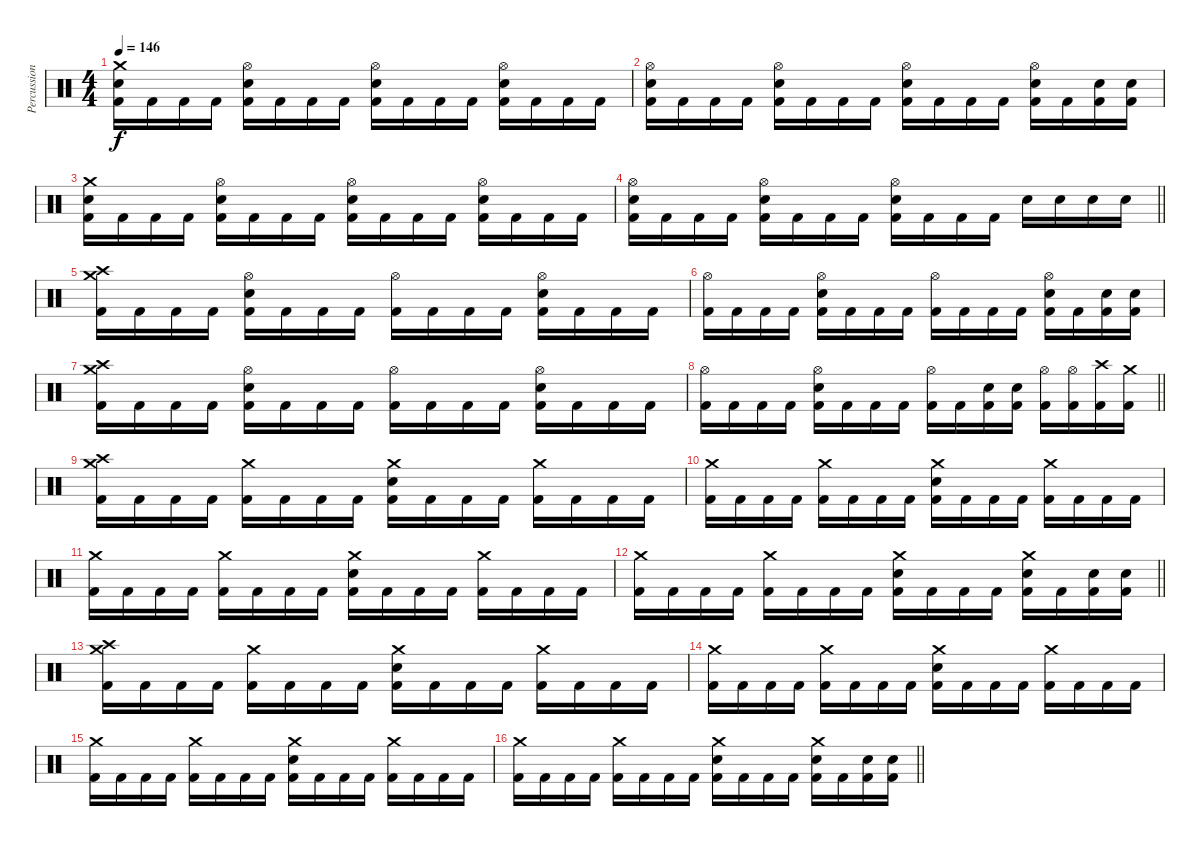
\track ("Percussion" "Percussion") {instrument percussion}
\staff {score}
\articulation defaults
\ts (4 4)
\tempo 146
\clef neutral
\ks c
("Crash medium (hit)" "Snare (hit) 2" "Kick (hit) 2").16{dy f} "Kick (hit) 2".16 "Kick (hit) 2".16 "Kick (hit) 2".16 ("Hi-Hat (open)" "Snare (hit) 2" "Kick (hit) 2").16 "Kick (hit) 2".16 "Kick (hit) 2".16 "Kick (hit) 2".16 ("Hi-Hat (open)" "Snare (hit) 2" "Kick (hit) 2").16 "Kick (hit) 2".16 "Kick (hit) 2".16 "Kick (hit) 2".16 ("Hi-Hat (open)" "Snare (hit) 2" "Kick (hit) 2").16 "Kick (hit) 2".16 "Kick (hit) 2".16 "Kick (hit) 2".16 |
("Hi-Hat (open)" "Snare (hit) 2" "Kick (hit) 2").16 "Kick (hit) 2".16 "Kick (hit) 2".16 "Kick (hit) 2".16 ("Hi-Hat (open)" "Snare (hit) 2" "Kick (hit) 2").16 "Kick (hit) 2".16 "Kick (hit) 2".16 "Kick (hit) 2".16 ("Hi-Hat (open)" "Snare (hit) 2" "Kick (hit) 2").16 "Kick (hit) 2".16 "Kick (hit) 2".16 "Kick (hit) 2".16 ("Hi-Hat (open)" "Snare (hit) 2" "Kick (hit) 2").16 "Kick (hit) 2".16 ("Snare (hit) 2" "Kick (hit) 2").16 ("Snare (hit) 2" "Kick (hit) 2").16 |
("Crash medium (hit)" "Snare (hit) 2" "Kick (hit) 2").16 "Kick (hit) 2".16 "Kick (hit) 2".16 "Kick (hit) 2".16 ("Hi-Hat (open)" "Snare (hit) 2" "Kick (hit) 2").16 "Kick (hit) 2".16 "Kick (hit) 2".16 "Kick (hit) 2".16 ("Hi-Hat (open)" "Snare (hit) 2" "Kick (hit) 2").16 "Kick (hit) 2".16 "Kick (hit) 2".16 "Kick (hit) 2".16 ("Hi-Hat (open)" "Snare (hit) 2" "Kick (hit) 2").16 "Kick (hit) 2".16 "Kick (hit) 2".16 "Kick (hit) 2".16 |
\barLineRight lightlight
("Hi-Hat (open)" "Snare (hit) 2" "Kick (hit) 2").16 "Kick (hit) 2".16 "Kick (hit) 2".16 "Kick (hit) 2".16 ("Hi-Hat (open)" "Snare (hit) 2" "Kick (hit) 2").16 "Kick (hit) 2".16 "Kick (hit) 2".16 "Kick (hit) 2".16 ("Hi-Hat (open)" "Snare (hit) 2" "Kick (hit) 2").16 "Kick (hit) 2".16 "Kick (hit) 2".16 "Kick (hit) 2".16 "Snare (hit) 2".16 "Snare (hit) 2".16 "Snare (hit) 2".16 "Snare (hit) 2".16 |
("Crash high (hit)" "Crash medium (hit)" "Kick (hit) 2").16 "Kick (hit) 2".16 "Kick (hit) 2".16 "Kick (hit) 2".16 ("Hi-Hat (open)" "Snare (hit) 2" "Kick (hit) 2").16 "Kick (hit) 2".16 "Kick (hit) 2".16 "Kick (hit) 2".16 ("Hi-Hat (open)" "Kick (hit) 2").16 "Kick (hit) 2".16 "Kick (hit) 2".16 "Kick (hit) 2".16 ("Hi-Hat (open)" "Snare (hit) 2" "Kick (hit) 2").16 "Kick (hit) 2".16 "Kick (hit) 2".16 "Kick (hit) 2".16 |
("Hi-Hat (open)" "Kick (hit) 2").16 "Kick (hit) 2".16 "Kick (hit) 2".16 "Kick (hit) 2".16 ("Hi-Hat (open)" "Snare (hit) 2" "Kick (hit) 2").16 "Kick (hit) 2".16 "Kick (hit) 2".16 "Kick (hit) 2".16 ("Hi-Hat (open)" "Kick (hit) 2").16 "Kick (hit) 2".16 "Kick (hit) 2".16 "Kick (hit) 2".16 ("Hi-Hat (open)" "Snare (hit) 2" "Kick (hit) 2").16 "Kick (hit) 2".16 ("Snare (hit) 2" "Kick (hit) 2").16 ("Snare (hit) 2" "Kick (hit) 2").16 |
("Crash high (hit)" "Crash medium (hit)" "Kick (hit) 2").16 "Kick (hit) 2".16 "Kick (hit) 2".16 "Kick (hit) 2".16 ("Hi-Hat (open)" "Snare (hit) 2" "Kick (hit) 2").16 "Kick (hit) 2".16 "Kick (hit) 2".16 "Kick (hit) 2".16 ("Hi-Hat (open)" "Kick (hit) 2").16 "Kick (hit) 2".16 "Kick (hit) 2".16 "Kick (hit) 2".16 ("Hi-Hat (open)" "Snare (hit) 2" "Kick (hit) 2").16 "Kick (hit) 2".16 "Kick (hit) 2".16 "Kick (hit) 2".16 |
\barLineRight lightlight
("Hi-Hat (open)" "Kick (hit) 2").16 "Kick (hit) 2".16 "Kick (hit) 2".16 "Kick (hit) 2".16 ("Hi-Hat (open)" "Snare (hit) 2" "Kick (hit) 2").16 "Kick (hit) 2".16 "Kick (hit) 2".16 "Kick (hit) 2".16 ("Hi-Hat (open)" "Kick (hit) 2").16 "Kick (hit) 2".16 ("Snare (hit) 2" "Kick (hit) 2").16 ("Snare (hit) 2" "Kick (hit) 2").16 ("Hi-Hat (open)" "Kick (hit) 2").16 ("Hi-Hat (open)" "Kick (hit) 2").16 ("Crash high (hit)" "Kick (hit) 2").16 ("Crash medium (hit)" "Kick (hit) 2").16 |
("Crash high (hit)" "Crash medium (hit)" "Kick (hit) 2").16 "Kick (hit) 2".16 "Kick (hit) 2".16 "Kick (hit) 2".16 ("Crash medium (hit)" "Kick (hit) 2").16 "Kick (hit) 2".16 "Kick (hit) 2".16 "Kick (hit) 2".16 ("Crash medium (hit)" "Snare (hit) 2" "Kick (hit) 2").16 "Kick (hit) 2".16 "Kick (hit) 2".16 "Kick (hit) 2".16 ("Crash medium (hit)" "Kick (hit) 2").16 "Kick (hit) 2".16 "Kick (hit) 2".16 "Kick (hit) 2".16 |
("Crash medium (hit)" "Kick (hit) 2").16 "Kick (hit) 2".16 "Kick (hit) 2".16 "Kick (hit) 2".16 ("Crash medium (hit)" "Kick (hit) 2").16 "Kick (hit) 2".16 "Kick (hit) 2".16 "Kick (hit) 2".16 ("Crash medium (hit)" "Snare (hit) 2" "Kick (hit) 2").16 "Kick (hit) 2".16 "Kick (hit) 2".16 "Kick (hit) 2".16 ("Crash medium (hit)" "Kick (hit) 2").16 "Kick (hit) 2".16 "Kick (hit) 2".16 "Kick (hit) 2".16 |
("Crash medium (hit)" "Kick (hit) 2").16 "Kick (hit) 2".16 "Kick (hit) 2".16 "Kick (hit) 2".16 ("Crash medium (hit)" "Kick (hit) 2").16 "Kick (hit) 2".16 "Kick (hit) 2".16 "Kick (hit) 2".16 ("Crash medium (hit)" "Snare (hit) 2" "Kick (hit) 2").16 "Kick (hit) 2".16 "Kick (hit) 2".16 "Kick (hit) 2".16 ("Crash medium (hit)" "Kick (hit) 2").16 "Kick (hit) 2".16 "Kick (hit) 2".16 "Kick (hit) 2".16 |
\barLineRight lightlight
("Crash medium (hit)" "Kick (hit) 2").16 "Kick (hit) 2".16 "Kick (hit) 2".16 "Kick (hit) 2".16 ("Crash medium (hit)" "Kick (hit) 2").16 "Kick (hit) 2".16 "Kick (hit) 2".16 "Kick (hit) 2".16 ("Crash medium (hit)" "Snare (hit) 2" "Kick (hit) 2").16 "Kick (hit) 2".16 "Kick (hit) 2".16 "Kick (hit) 2".16 ("Crash medium (hit)" "Snare (hit) 2" "Kick (hit) 2").16 "Kick (hit) 2".16 ("Snare (hit) 2" "Kick (hit) 2").16 ("Snare (hit) 2" "Kick (hit) 2").16 |
("Crash high (hit)" "Crash medium (hit)" "Kick (hit) 2").16 "Kick (hit) 2".16 "Kick (hit) 2".16 "Kick (hit) 2".16 ("Crash medium (hit)" "Kick (hit) 2").16 "Kick (hit) 2".16 "Kick (hit) 2".16 "Kick (hit) 2".16 ("Crash medium (hit)" "Snare (hit) 2" "Kick (hit) 2").16 "Kick (hit) 2".16 "Kick (hit) 2".16 "Kick (hit) 2".16 ("Crash medium (hit)" "Kick (hit) 2").16 "Kick (hit) 2".16 "Kick (hit) 2".16 "Kick (hit) 2".16 |
("Crash medium (hit)" "Kick (hit) 2").16 "Kick (hit) 2".16 "Kick (hit) 2".16 "Kick (hit) 2".16 ("Crash medium (hit)" "Kick (hit) 2").16 "Kick (hit) 2".16 "Kick (hit) 2".16 "Kick (hit) 2".16 ("Crash medium (hit)" "Snare (hit) 2" "Kick (hit) 2").16 "Kick (hit) 2".16 "Kick (hit) 2".16 "Kick (hit) 2".16 ("Crash medium (hit)" "Kick (hit) 2").16 "Kick (hit) 2".16 "Kick (hit) 2".16 "Kick (hit) 2".16 |
("Crash medium (hit)" "Kick (hit) 2").16 "Kick (hit) 2".16 "Kick (hit) 2".16 "Kick (hit) 2".16 ("Crash medium (hit)" "Kick (hit) 2").16 "Kick (hit) 2".16 "Kick (hit) 2".16 "Kick (hit) 2".16 ("Crash medium (hit)" "Snare (hit) 2" "Kick (hit) 2").16 "Kick (hit) 2".16 "Kick (hit) 2".16 "Kick (hit) 2".16 ("Crash medium (hit)" "Kick (hit) 2").16 "Kick (hit) 2".16 "Kick (hit) 2".16 "Kick (hit) 2".16 |
\barLineRight lightlight
("Crash medium (hit)" "Kick (hit) 2").16 "Kick (hit) 2".16 "Kick (hit) 2".16 "Kick (hit) 2".16 ("Crash medium (hit)" "Kick (hit) 2").16 "Kick (hit) 2".16 "Kick (hit) 2".16 "Kick (hit) 2".16 ("Crash medium (hit)" "Snare (hit) 2" "Kick (hit) 2").16 "Kick (hit) 2".16 "Kick (hit) 2".16 "Kick (hit) 2".16 ("Crash medium (hit)" "Snare (hit) 2" "Kick (hit) 2").16 "Kick (hit) 2".16 ("Snare (hit) 2" "Kick (hit) 2").16 ("Snare (hit) 2" "Kick (hit) 2").16
